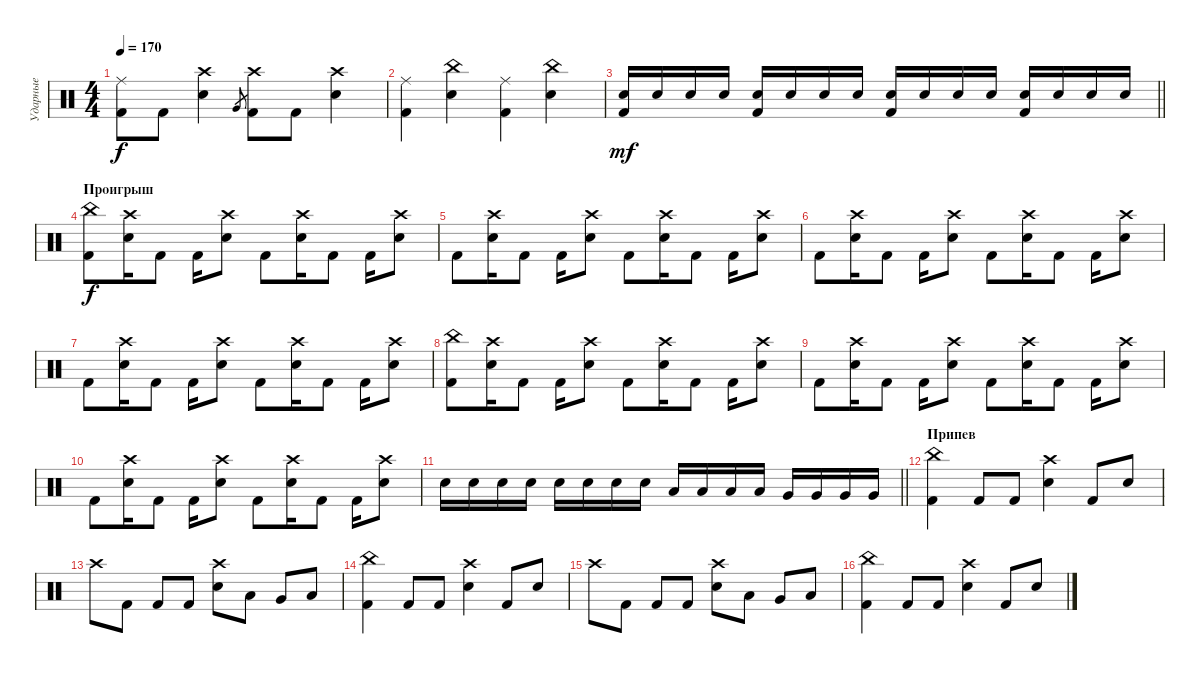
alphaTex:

\track ("Ударные" "Ударные") {instrument percussion}
\staff {score}
\articulation defaults
\ts (4 4)
\tempo 170
\clef neutral
\ks c
("Kick (hit) 2" "Ride (middle)").8{dy f} "Kick (hit) 2".8 ("Electric Snare (hit)" "Crash high (hit)").4 "Very Low Tom (hit)".8{gr} ("Kick (hit) 2" "Crash high (hit)").8 "Kick (hit) 2".8 ("Electric Snare (hit)" "Crash high (hit)").4 |
("Kick (hit) 2" "Ride (middle)").4 ("Electric Snare (hit)" "China (hit)").4 ("Kick (hit) 2" "Ride (middle)").4 ("Electric Snare (hit)" "China (hit)").4 |
\barLineRight lightlight
("Kick (hit) 2" "Electric Snare (hit)").16{dy mf} "Electric Snare (hit)".16 "Electric Snare (hit)".16 "Electric Snare (hit)".16 ("Kick (hit) 2" "Electric Snare (hit)").16 "Electric Snare (hit)".16 "Electric Snare (hit)".16 "Electric Snare (hit)".16 ("Kick (hit) 2" "Electric Snare (hit)").16 "Electric Snare (hit)".16 "Electric Snare (hit)".16 "Electric Snare (hit)".16 ("Kick (hit) 2" "Electric Snare (hit)").16 "Electric Snare (hit)".16 "Electric Snare (hit)".16 "Electric Snare (hit)".16 |
\section ("" "Проигрыш")
("Kick (hit) 2" "China (hit)").8{dy f} ("Electric Snare (hit)" "Crash high (hit)").16 "Kick (hit) 2".8 "Kick (hit) 2".16 ("Electric Snare (hit)" "Crash high (hit)").8 "Kick (hit) 2".8 ("Electric Snare (hit)" "Crash high (hit)").16 "Kick (hit) 2".8 "Kick (hit) 2".16 ("Electric Snare (hit)" "Crash high (hit)").8 |
"Kick (hit) 2".8 ("Electric Snare (hit)" "Crash high (hit)").16 "Kick (hit) 2".8 "Kick (hit) 2".16 ("Electric Snare (hit)" "Crash high (hit)").8 "Kick (hit) 2".8 ("Electric Snare (hit)" "Crash high (hit)").16 "Kick (hit) 2".8 "Kick (hit) 2".16 ("Electric Snare (hit)" "Crash high (hit)").8 |
"Kick (hit) 2".8 ("Electric Snare (hit)" "Crash high (hit)").16 "Kick (hit) 2".8 "Kick (hit) 2".16 ("Electric Snare (hit)" "Crash high (hit)").8 "Kick (hit) 2".8 ("Electric Snare (hit)" "Crash high (hit)").16 "Kick (hit) 2".8 "Kick (hit) 2".16 ("Electric Snare (hit)" "Crash high (hit)").8 |
"Kick (hit) 2".8 ("Electric Snare (hit)" "Crash high (hit)").16 "Kick (hit) 2".8 "Kick (hit) 2".16 ("Electric Snare (hit)" "Crash high (hit)").8 "Kick (hit) 2".8 ("Electric Snare (hit)" "Crash high (hit)").16 "Kick (hit) 2".8 "Kick (hit) 2".16 ("Electric Snare (hit)" "Crash high (hit)").8 |
("Kick (hit) 2" "China (hit)").8 ("Electric Snare (hit)" "Crash high (hit)").16 "Kick (hit) 2".8 "Kick (hit) 2".16 ("Electric Snare (hit)" "Crash high (hit)").8 "Kick (hit) 2".8 ("Electric Snare (hit)" "Crash high (hit)").16 "Kick (hit) 2".8 "Kick (hit) 2".16 ("Electric Snare (hit)" "Crash high (hit)").8 |
"Kick (hit) 2".8 ("Electric Snare (hit)" "Crash high (hit)").16 "Kick (hit) 2".8 "Kick (hit) 2".16 ("Electric Snare (hit)" "Crash high (hit)").8 "Kick (hit) 2".8 ("Electric Snare (hit)" "Crash high (hit)").16 "Kick (hit) 2".8 "Kick (hit) 2".16 ("Electric Snare (hit)" "Crash high (hit)").8 |
"Kick (hit) 2".8 ("Electric Snare (hit)" "Crash high (hit)").16 "Kick (hit) 2".8 "Kick (hit) 2".16 ("Electric Snare (hit)" "Crash high (hit)").8 "Kick (hit) 2".8 ("Electric Snare (hit)" "Crash high (hit)").16 "Kick (hit) 2".8 "Kick (hit) 2".16 ("Electric Snare (hit)" "Crash high (hit)").8 |
\barLineRight lightlight "Electric Snare (hit)".16 "Electric Snare (hit)".16 "Electric Snare (hit)".16 "Electric Snare (hit)".16 "Electric Snare (hit)".16 "Electric Snare (hit)".16 "Electric Snare (hit)".16 "Electric Snare (hit)".16 "Low Tom (hit)".16 "Low Tom (hit)".16 "Low Tom (hit)".16 "Low Tom (hit)".16 "Very Low Tom (hit)".16 "Very Low Tom (hit)".16 "Very Low Tom (hit)".16 "Very Low Tom (hit)".16
|
\section ("" "Припев")
("Kick (hit) 2" "China (hit)").4 "Kick (hit) 2".8 "Kick (hit) 2".8 ("Electric Snare (hit)" "Crash high (hit)").4 "Kick (hit) 2".8 "Electric Snare (hit)".8 |
"Crash high (hit)".8 "Kick (hit) 2".8 "Kick (hit) 2".8 "Kick (hit) 2".8 ("Electric Snare (hit)" "Crash high (hit)").8 "Low Tom (hit)".8 "Very Low Tom (hit)".8 "Low Floor Tom (hit)".8 |
("Kick (hit) 2" "China (hit)").4 "Kick (hit) 2".8 "Kick (hit) 2".8 ("Electric Snare (hit)" "Crash high (hit)").4 "Kick (hit) 2".8 "Electric Snare (hit)".8 |
"Crash high (hit)".8 "Kick (hit) 2".8 "Kick (hit) 2".8 "Kick (hit) 2".8 ("Electric Snare (hit)" "Crash high (hit)").8 "Low Tom (hit)".8 "Very Low Tom (hit)".8 "Low Floor Tom (hit)".8 |
("Kick (hit) 2" "China (hit)").4 "Kick (hit) 2".8 "Kick (hit) 2".8 ("Electric Snare (hit)" "Crash high (hit)").4 "Kick (hit) 2".8 "Electric Snare (hit)".8
